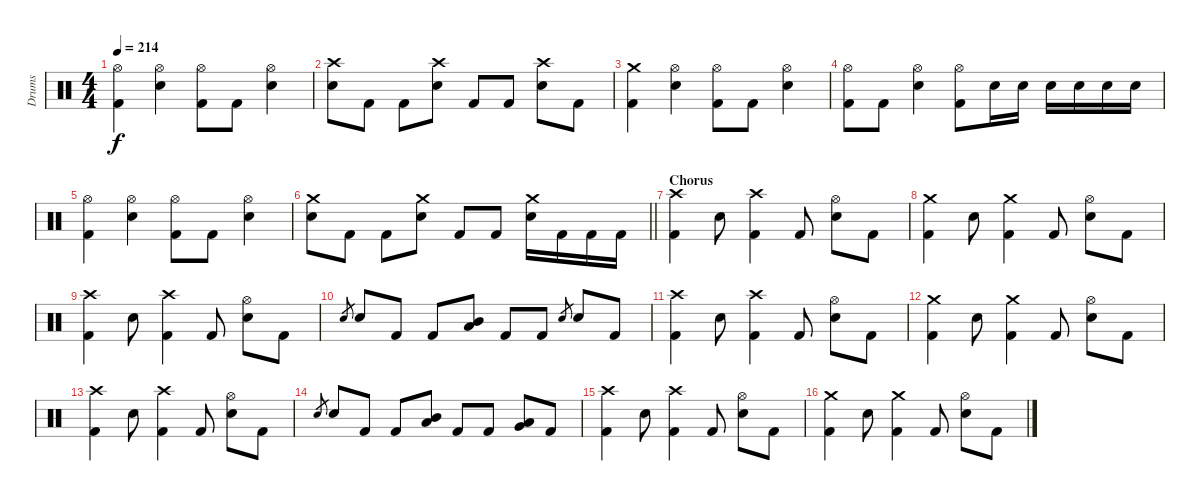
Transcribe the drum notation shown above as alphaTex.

\track ("Drums" "Drums") {instrument percussion}
\staff {score}
\articulation defaults
\ts (4 4)
\tempo 214
\clef neutral
\ks c
("Hi-Hat (open)" "Kick (hit) 2").4{dy f} ("Hi-Hat (open)" "Electric Snare (hit)").4 ("Hi-Hat (open)" "Kick (hit) 2").8 "Kick (hit) 2".8 ("Hi-Hat (open)" "Electric Snare (hit)").4 |
("Crash high (hit)" "Electric Snare (hit)").8 "Kick (hit) 2".8 "Kick (hit) 2".8 ("Crash high (hit)" "Electric Snare (hit)").8 "Kick (hit) 2".8 "Kick (hit) 2".8 ("Crash high (hit)" "Electric Snare (hit)").8 "Kick (hit) 2".8 |
("Crash medium (hit)" "Kick (hit) 2").4{volume 16} ("Hi-Hat (open)" "Electric Snare (hit)").4 ("Hi-Hat (open)" "Kick (hit) 2").8 "Kick (hit) 2".8 ("Hi-Hat (open)" "Electric Snare (hit)").4 |
("Hi-Hat (open)" "Kick (hit) 2").8 "Kick (hit) 2".8 ("Hi-Hat (open)" "Electric Snare (hit)").4 ("Hi-Hat (open)" "Kick (hit) 2").8 "Electric Snare (hit)".16 "Electric Snare (hit)".16 "Electric Snare (hit)".16 "Electric Snare (hit)".16 "Electric Snare (hit)".16 "Electric Snare (hit)".16 |
("Hi-Hat (open)" "Kick (hit) 2").4 ("Hi-Hat (open)" "Electric Snare (hit)").4 ("Hi-Hat (open)" "Kick (hit) 2").8 "Kick (hit) 2".8 ("Hi-Hat (open)" "Electric Snare (hit)").4 |
\barLineRight lightlight
("Crash medium (hit)" "Electric Snare (hit)").8 "Kick (hit) 2".8 "Kick (hit) 2".8 ("Crash medium (hit)" "Electric Snare (hit)").8 "Kick (hit) 2".8 "Kick (hit) 2".8 ("Crash medium (hit)" "Electric Snare (hit)").16 "Kick (hit) 2".16 "Kick (hit) 2".16 "Kick (hit) 2".16 |
\section ("" "Chorus")
("Crash high (hit)" "Kick (hit) 2").4 "Electric Snare (hit)".8 ("Crash high (hit)" "Kick (hit) 2").4 "Kick (hit) 2".8 ("Hi-Hat (open)" "Electric Snare (hit)").8 "Kick (hit) 2".8 |
("Crash medium (hit)" "Kick (hit) 2").4 "Electric Snare (hit)".8 ("Crash medium (hit)" "Kick (hit) 2").4 "Kick (hit) 2".8 ("Hi-Hat (open)" "Electric Snare (hit)").8 "Kick (hit) 2".8 |
("Crash high (hit)" "Kick (hit) 2").4 "Electric Snare (hit)".8 ("Crash high (hit)" "Kick (hit) 2").4 "Kick (hit) 2".8 ("Hi-Hat (open)" "Electric Snare (hit)").8 "Kick (hit) 2".8 |
"Electric Snare (hit)".8{gr} "Electric Snare (hit)".8 "Kick (hit) 2".8 "Kick (hit) 2".8 ("Mid Tom (hit)" "Low Tom (hit)").8 "Kick (hit) 2".8 "Kick (hit) 2".8 "Electric Snare (hit)".8{gr} "Electric Snare (hit)".8 "Kick (hit) 2".8 |
("Crash high (hit)" "Kick (hit) 2").4 "Electric Snare (hit)".8 ("Crash high (hit)" "Kick (hit) 2").4 "Kick (hit) 2".8 ("Hi-Hat (open)" "Electric Snare (hit)").8 "Kick (hit) 2".8 |
("Crash medium (hit)" "Kick (hit) 2").4 "Electric Snare (hit)".8 ("Crash medium (hit)" "Kick (hit) 2").4 "Kick (hit) 2".8 ("Hi-Hat (open)" "Electric Snare (hit)").8 "Kick (hit) 2".8 |
("Crash high (hit)" "Kick (hit) 2").4 "Electric Snare (hit)".8 ("Crash high (hit)" "Kick (hit) 2").4 "Kick (hit) 2".8 ("Hi-Hat (open)" "Electric Snare (hit)").8 "Kick (hit) 2".8 |
"Electric Snare (hit)".8{gr} "Electric Snare (hit)".8 "Kick (hit) 2".8 "Kick (hit) 2".8 ("Mid Tom (hit)" "Low Tom (hit)").8 "Kick (hit) 2".8 "Kick (hit) 2".8 ("Low Tom (hit)" "Very Low Tom (hit)").8 "Kick (hit) 2".8 |
("Crash high (hit)" "Kick (hit) 2").4 "Electric Snare (hit)".8 ("Crash high (hit)" "Kick (hit) 2").4 "Kick (hit) 2".8 ("Hi-Hat (open)" "Electric Snare (hit)").8 "Kick (hit) 2".8 |
("Crash medium (hit)" "Kick (hit) 2").4 "Electric Snare (hit)".8 ("Crash medium (hit)" "Kick (hit) 2").4 "Kick (hit) 2".8 ("Hi-Hat (open)" "Electric Snare (hit)").8 "Kick (hit) 2".8
